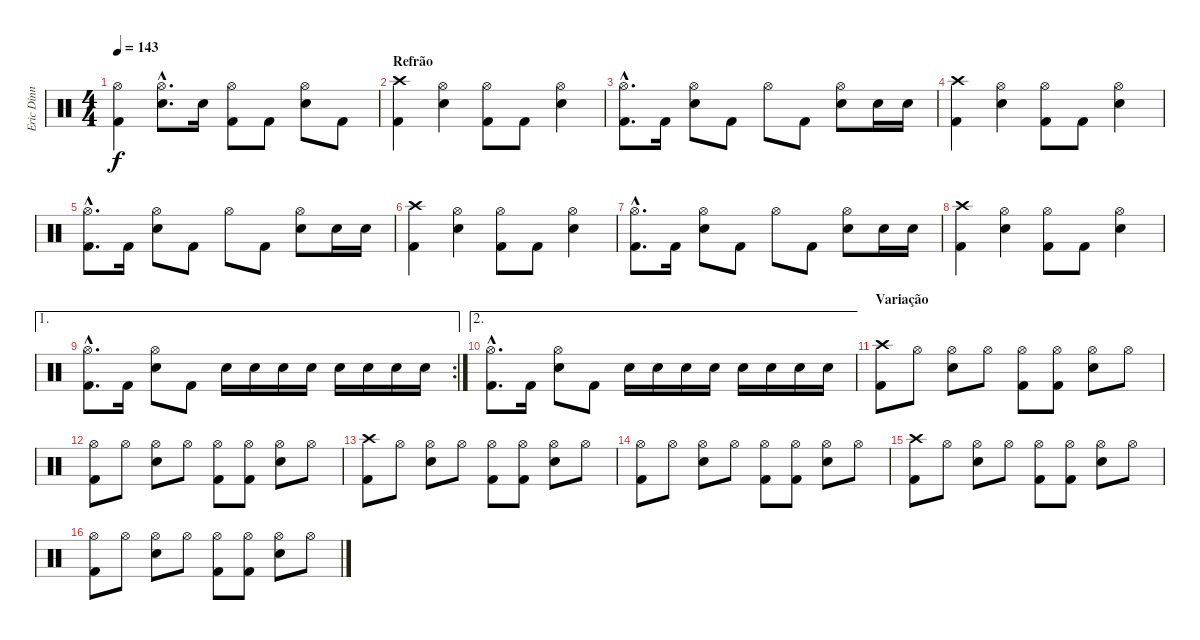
\track ("Eric Dinn" "Eric Dinn") {instrument percussion}
\staff {score}
\articulation defaults
\ts (4 4)
\tempo 143
\clef neutral
\ks c
("Hi-Hat (open)" "Kick (hit) 2").4{dy f} ("Hi-Hat (open)"{hac} "Snare (hit) 2"{hac}).8{d} "Snare (hit) 2".16 ("Hi-Hat (open)" "Kick (hit) 2").8 "Kick (hit) 2".8 ("Hi-Hat (open)" "Snare (hit) 2").8 "Kick (hit) 2".8 |
\section ("" "Refrão")
("Crash high (hit)" "Kick (hit) 2").4 ("Hi-Hat (open)" "Snare (hit) 2").4 ("Hi-Hat (open)" "Kick (hit) 2").8 "Kick (hit) 2".8 ("Hi-Hat (open)" "Snare (hit) 2").4 |
("Hi-Hat (open)"{hac} "Kick (hit) 2"{hac}).8{d} "Kick (hit) 2".16 ("Hi-Hat (open)" "Snare (hit) 2").8 "Kick (hit) 2".8 "Hi-Hat (open)".8 "Kick (hit) 2".8 ("Hi-Hat (open)" "Snare (hit) 2").8 "Snare (hit) 2".16 "Snare (hit) 2".16 |
("Crash high (hit)" "Kick (hit) 2").4 ("Hi-Hat (open)" "Snare (hit) 2").4 ("Hi-Hat (open)" "Kick (hit) 2").8 "Kick (hit) 2".8 ("Hi-Hat (open)" "Snare (hit) 2").4 |
("Hi-Hat (open)"{hac} "Kick (hit) 2"{hac}).8{d} "Kick (hit) 2".16 ("Hi-Hat (open)" "Snare (hit) 2").8 "Kick (hit) 2".8 "Hi-Hat (open)".8 "Kick (hit) 2".8 ("Hi-Hat (open)" "Snare (hit) 2").8 "Snare (hit) 2".16 "Snare (hit) 2".16 |
("Crash high (hit)" "Kick (hit) 2").4 ("Hi-Hat (open)" "Snare (hit) 2").4 ("Hi-Hat (open)" "Kick (hit) 2").8 "Kick (hit) 2".8 ("Hi-Hat (open)" "Snare (hit) 2").4 |
("Hi-Hat (open)"{hac} "Kick (hit) 2"{hac}).8{d} "Kick (hit) 2".16 ("Hi-Hat (open)" "Snare (hit) 2").8 "Kick (hit) 2".8 "Hi-Hat (open)".8 "Kick (hit) 2".8 ("Hi-Hat (open)" "Snare (hit) 2").8 "Snare (hit) 2".16 "Snare (hit) 2".16 |
("Crash high (hit)" "Kick (hit) 2").4 ("Hi-Hat (open)" "Snare (hit) 2").4 ("Hi-Hat (open)" "Kick (hit) 2").8 "Kick (hit) 2".8 ("Hi-Hat (open)" "Snare (hit) 2").4 |
\ae 1
\rc 2
("Hi-Hat (open)"{hac} "Kick (hit) 2"{hac}).8{d} "Kick (hit) 2".16 ("Hi-Hat (open)" "Snare (hit) 2").8 "Kick (hit) 2".8 "Snare (hit) 2".16 "Snare (hit) 2".16 "Snare (hit) 2".16 "Snare (hit) 2".16 "Snare (hit) 2".16 "Snare (hit) 2".16 "Snare (hit) 2".16 "Snare (hit) 2".16 |
\ae 2
("Hi-Hat (open)"{hac} "Kick (hit) 2"{hac}).8{d} "Kick (hit) 2".16 ("Hi-Hat (open)" "Snare (hit) 2").8 "Kick (hit) 2".8 "Snare (hit) 2".16 "Snare (hit) 2".16 "Snare (hit) 2".16 "Snare (hit) 2".16 "Snare (hit) 2".16 "Snare (hit) 2".16 "Snare (hit) 2".16 "Snare (hit) 2".16 |
\section ("" "Variação")
("Crash high (hit)" "Kick (hit) 2").8 "Hi-Hat (open)".8 ("Hi-Hat (open)" "Snare (hit) 2").8 "Hi-Hat (open)".8 ("Hi-Hat (open)" "Kick (hit) 2").8 ("Hi-Hat (open)" "Kick (hit) 2").8 ("Hi-Hat (open)" "Snare (hit) 2").8 "Hi-Hat (open)".8 |
("Hi-Hat (open)" "Kick (hit) 2").8 "Hi-Hat (open)".8 ("Hi-Hat (open)" "Snare (hit) 2").8 "Hi-Hat (open)".8 ("Hi-Hat (open)" "Kick (hit) 2").8 ("Hi-Hat (open)" "Kick (hit) 2").8 ("Hi-Hat (open)" "Snare (hit) 2").8 "Hi-Hat (open)".8 |
("Crash high (hit)" "Kick (hit) 2").8 "Hi-Hat (open)".8 ("Hi-Hat (open)" "Snare (hit) 2").8 "Hi-Hat (open)".8 ("Hi-Hat (open)" "Kick (hit) 2").8 ("Hi-Hat (open)" "Kick (hit) 2").8 ("Hi-Hat (open)" "Snare (hit) 2").8 "Hi-Hat (open)".8 |
("Hi-Hat (open)" "Kick (hit) 2").8 "Hi-Hat (open)".8 ("Hi-Hat (open)" "Snare (hit) 2").8 "Hi-Hat (open)".8 ("Hi-Hat (open)" "Kick (hit) 2").8 ("Hi-Hat (open)" "Kick (hit) 2").8 ("Hi-Hat (open)" "Snare (hit) 2").8 "Hi-Hat (open)".8 |
("Crash high (hit)" "Kick (hit) 2").8 "Hi-Hat (open)".8 ("Hi-Hat (open)" "Snare (hit) 2").8 "Hi-Hat (open)".8 ("Hi-Hat (open)" "Kick (hit) 2").8 ("Hi-Hat (open)" "Kick (hit) 2").8 ("Hi-Hat (open)" "Snare (hit) 2").8 "Hi-Hat (open)".8 |
("Hi-Hat (open)" "Kick (hit) 2").8 "Hi-Hat (open)".8 ("Hi-Hat (open)" "Snare (hit) 2").8 "Hi-Hat (open)".8 ("Hi-Hat (open)" "Kick (hit) 2").8 ("Hi-Hat (open)" "Kick (hit) 2").8 ("Hi-Hat (open)" "Snare (hit) 2").8 "Hi-Hat (open)".8
